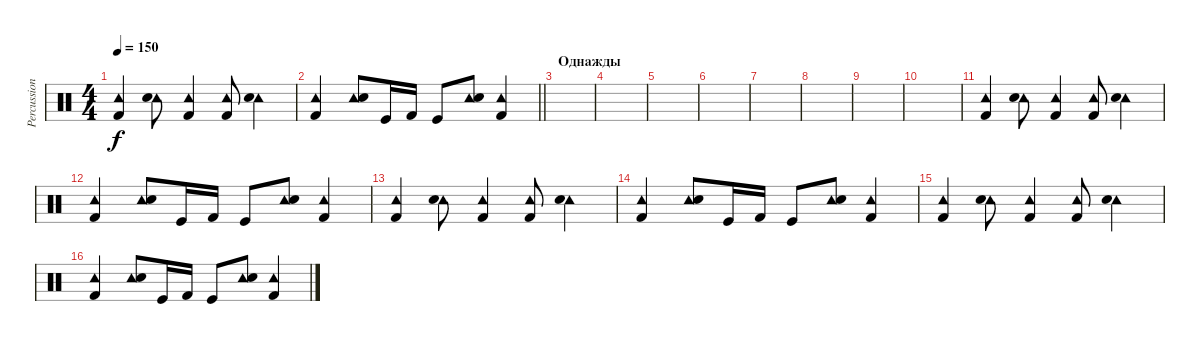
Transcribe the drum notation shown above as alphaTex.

\track ("Percussion" "Percussion") {instrument percussion bank 3}
\staff {score}
\articulation defaults
\ts (4 4)
\tempo 150
\clef neutral
\ks c
("Tambourine (hit)" "Kick (hit) 2").4{dy f} ("Tambourine (hit)" "Snare (hit) 2").8 ("Tambourine (hit)" "Kick (hit) 2").4 ("Tambourine (hit)" "Kick (hit) 2").8 ("Tambourine (hit)" "Snare (hit) 2").4 |
\barLineRight lightlight
("Tambourine (hit)" "Kick (hit) 2").4 ("Tambourine (hit)" "Snare (hit) 2").8 "Kick (hit)".16 "Kick (hit) 2".16 "Kick (hit)".8 ("Tambourine (hit)" "Snare (hit) 2").8 ("Tambourine (hit)" "Kick (hit) 2").4 |
\section ("" "Однажды")
|
|
|
|
|
|
|
|
("Tambourine (hit)" "Kick (hit) 2").4 ("Tambourine (hit)" "Snare (hit) 2").8 ("Tambourine (hit)" "Kick (hit) 2").4 ("Tambourine (hit)" "Kick (hit) 2").8 ("Tambourine (hit)" "Snare (hit) 2").4 |
("Tambourine (hit)" "Kick (hit) 2").4 ("Tambourine (hit)" "Snare (hit) 2").8 "Kick (hit)".16 "Kick (hit) 2".16 "Kick (hit)".8 ("Tambourine (hit)" "Snare (hit) 2").8 ("Tambourine (hit)" "Kick (hit) 2").4 |
("Tambourine (hit)" "Kick (hit) 2").4 ("Tambourine (hit)" "Snare (hit) 2").8 ("Tambourine (hit)" "Kick (hit) 2").4 ("Tambourine (hit)" "Kick (hit) 2").8 ("Tambourine (hit)" "Snare (hit) 2").4 |
("Tambourine (hit)" "Kick (hit) 2").4 ("Tambourine (hit)" "Snare (hit) 2").8 "Kick (hit)".16 "Kick (hit) 2".16 "Kick (hit)".8 ("Tambourine (hit)" "Snare (hit) 2").8 ("Tambourine (hit)" "Kick (hit) 2").4 |
("Tambourine (hit)" "Kick (hit) 2").4 ("Tambourine (hit)" "Snare (hit) 2").8 ("Tambourine (hit)" "Kick (hit) 2").4 ("Tambourine (hit)" "Kick (hit) 2").8 ("Tambourine (hit)" "Snare (hit) 2").4 |
("Tambourine (hit)" "Kick (hit) 2").4 ("Tambourine (hit)" "Snare (hit) 2").8 "Kick (hit)".16 "Kick (hit) 2".16 "Kick (hit)".8 ("Tambourine (hit)" "Snare (hit) 2").8 ("Tambourine (hit)" "Kick (hit) 2").4
